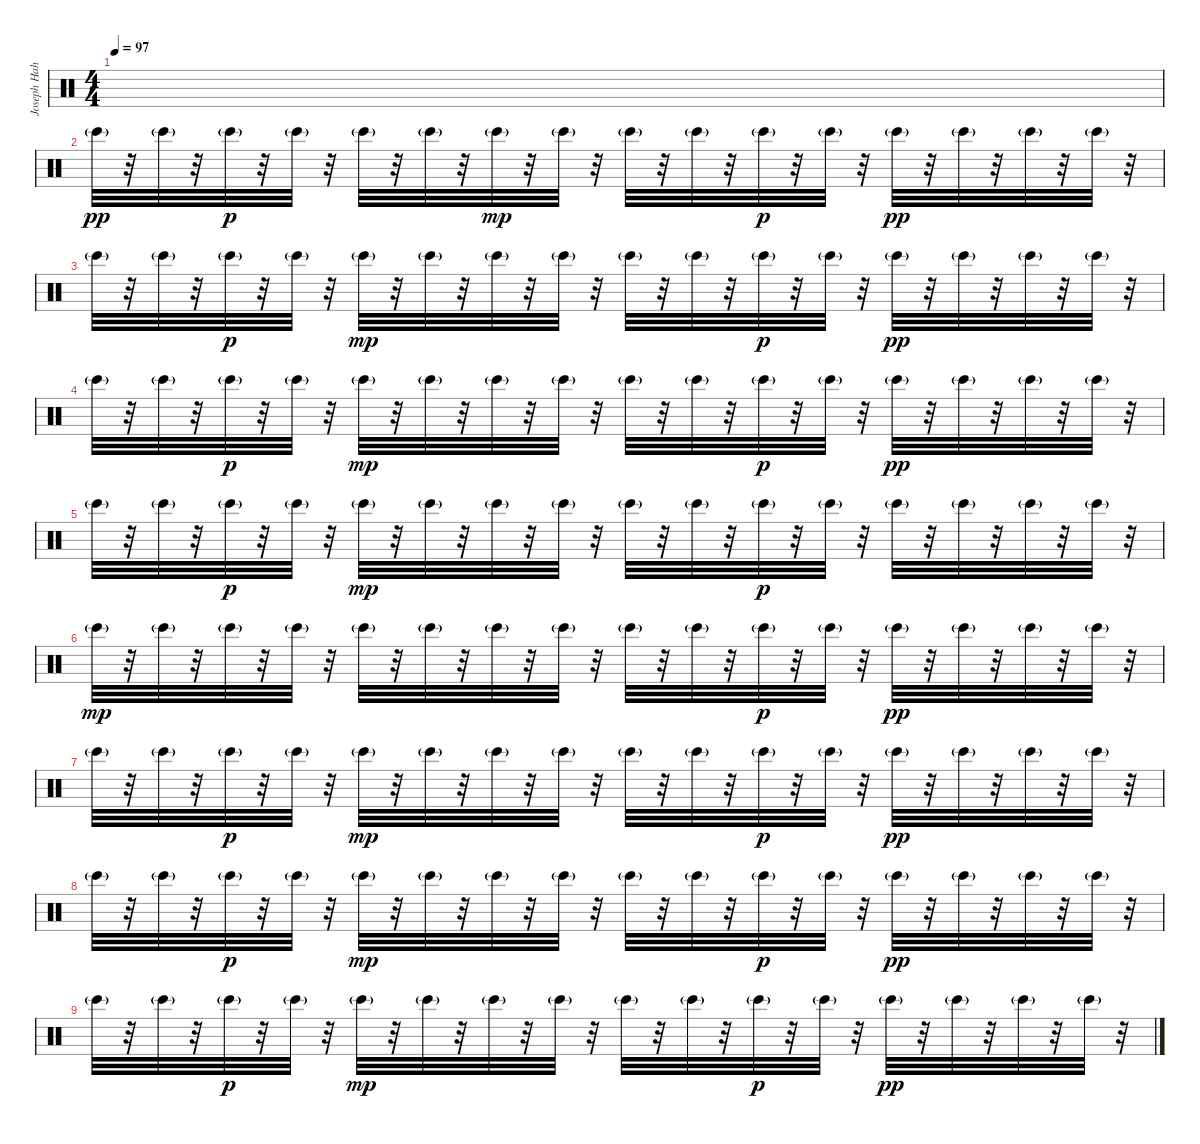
\track ("Joseph Hahn ('Slap' sound)" "Joseph Hah") {instrument percussion}
\staff {score}
\articulation defaults
\ts (4 4)
\tempo 97
\clef neutral
\ks c
|
"Bongo High (hit)"{g}.32{dy pp balance 16} r.32 "Bongo High (hit)"{g}.32 r.32 "Bongo High (hit)"{g}.32{dy p} r.32 "Bongo High (hit)"{g}.32 r.32 "Bongo High (hit)"{g}.32 r.32 "Bongo High (hit)"{g}.32 r.32 "Bongo High (hit)"{g}.32{dy mp} r.32 "Bongo High (hit)"{g}.32 r.32 "Bongo High (hit)"{g}.32 r.32 "Bongo High (hit)"{g}.32 r.32 "Bongo High (hit)"{g}.32{dy p} r.32 "Bongo High (hit)"{g}.32 r.32 "Bongo High (hit)"{g}.32{dy pp} r.32 "Bongo High (hit)"{g}.32 r.32 "Bongo High (hit)"{g}.32 r.32 "Bongo High (hit)"{g}.32 r.32 |
"Bongo High (hit)"{g}.32{balance 16} r.32 "Bongo High (hit)"{g}.32 r.32 "Bongo High (hit)"{g}.32{dy p} r.32 "Bongo High (hit)"{g}.32 r.32 "Bongo High (hit)"{g}.32{dy mp} r.32 "Bongo High (hit)"{g}.32 r.32 "Bongo High (hit)"{g}.32 r.32 "Bongo High (hit)"{g}.32 r.32 "Bongo High (hit)"{g}.32 r.32 "Bongo High (hit)"{g}.32 r.32 "Bongo High (hit)"{g}.32{dy p} r.32 "Bongo High (hit)"{g}.32 r.32 "Bongo High (hit)"{g}.32{dy pp} r.32 "Bongo High (hit)"{g}.32 r.32 "Bongo High (hit)"{g}.32 r.32 "Bongo High (hit)"{g}.32 r.32 |
"Bongo High (hit)"{g}.32{balance 16} r.32 "Bongo High (hit)"{g}.32 r.32 "Bongo High (hit)"{g}.32{dy p} r.32 "Bongo High (hit)"{g}.32 r.32 "Bongo High (hit)"{g}.32{dy mp} r.32 "Bongo High (hit)"{g}.32 r.32 "Bongo High (hit)"{g}.32 r.32 "Bongo High (hit)"{g}.32 r.32 "Bongo High (hit)"{g}.32 r.32 "Bongo High (hit)"{g}.32 r.32 "Bongo High (hit)"{g}.32{dy p} r.32 "Bongo High (hit)"{g}.32 r.32 "Bongo High (hit)"{g}.32{dy pp} r.32 "Bongo High (hit)"{g}.32 r.32 "Bongo High (hit)"{g}.32 r.32 "Bongo High (hit)"{g}.32 r.32 |
"Bongo High (hit)"{g}.32{balance 16} r.32 "Bongo High (hit)"{g}.32 r.32 "Bongo High (hit)"{g}.32{dy p} r.32 "Bongo High (hit)"{g}.32 r.32 "Bongo High (hit)"{g}.32{dy mp} r.32 "Bongo High (hit)"{g}.32 r.32 "Bongo High (hit)"{g}.32 r.32 "Bongo High (hit)"{g}.32 r.32 "Bongo High (hit)"{g}.32 r.32 "Bongo High (hit)"{g}.32 r.32 "Bongo High (hit)"{g}.32{dy p} r.32 "Bongo High (hit)"{g}.32 r.32 "Bongo High (hit)"{g}.32 r.32 "Bongo High (hit)"{g}.32 r.32 "Bongo High (hit)"{g}.32 r.32 "Bongo High (hit)"{g}.32 r.32 |
"Bongo High (hit)"{g}.32{dy mp balance 8} r.32 "Bongo High (hit)"{g}.32 r.32 "Bongo High (hit)"{g}.32 r.32 "Bongo High (hit)"{g}.32 r.32 "Bongo High (hit)"{g}.32 r.32 "Bongo High (hit)"{g}.32 r.32 "Bongo High (hit)"{g}.32 r.32 "Bongo High (hit)"{g}.32 r.32 "Bongo High (hit)"{g}.32 r.32 "Bongo High (hit)"{g}.32 r.32 "Bongo High (hit)"{g}.32{dy p} r.32 "Bongo High (hit)"{g}.32 r.32 "Bongo High (hit)"{g}.32{dy pp} r.32 "Bongo High (hit)"{g}.32 r.32 "Bongo High (hit)"{g}.32 r.32 "Bongo High (hit)"{g}.32 r.32 |
"Bongo High (hit)"{g}.32 r.32 "Bongo High (hit)"{g}.32 r.32 "Bongo High (hit)"{g}.32{dy p} r.32 "Bongo High (hit)"{g}.32 r.32 "Bongo High (hit)"{g}.32{dy mp} r.32 "Bongo High (hit)"{g}.32 r.32 "Bongo High (hit)"{g}.32 r.32 "Bongo High (hit)"{g}.32 r.32 "Bongo High (hit)"{g}.32 r.32 "Bongo High (hit)"{g}.32 r.32 "Bongo High (hit)"{g}.32{dy p} r.32 "Bongo High (hit)"{g}.32 r.32 "Bongo High (hit)"{g}.32{dy pp} r.32 "Bongo High (hit)"{g}.32 r.32 "Bongo High (hit)"{g}.32 r.32 "Bongo High (hit)"{g}.32 r.32 |
"Bongo High (hit)"{g}.32 r.32 "Bongo High (hit)"{g}.32 r.32 "Bongo High (hit)"{g}.32{dy p} r.32 "Bongo High (hit)"{g}.32 r.32 "Bongo High (hit)"{g}.32{dy mp} r.32 "Bongo High (hit)"{g}.32 r.32 "Bongo High (hit)"{g}.32 r.32 "Bongo High (hit)"{g}.32 r.32 "Bongo High (hit)"{g}.32 r.32 "Bongo High (hit)"{g}.32 r.32 "Bongo High (hit)"{g}.32{dy p} r.32 "Bongo High (hit)"{g}.32 r.32 "Bongo High (hit)"{g}.32{dy pp} r.32 "Bongo High (hit)"{g}.32 r.32 "Bongo High (hit)"{g}.32 r.32 "Bongo High (hit)"{g}.32 r.32 |
"Bongo High (hit)"{g}.32 r.32 "Bongo High (hit)"{g}.32 r.32 "Bongo High (hit)"{g}.32{dy p} r.32 "Bongo High (hit)"{g}.32 r.32 "Bongo High (hit)"{g}.32{dy mp} r.32 "Bongo High (hit)"{g}.32 r.32 "Bongo High (hit)"{g}.32 r.32 "Bongo High (hit)"{g}.32 r.32 "Bongo High (hit)"{g}.32 r.32 "Bongo High (hit)"{g}.32 r.32 "Bongo High (hit)"{g}.32{dy p} r.32 "Bongo High (hit)"{g}.32 r.32 "Bongo High (hit)"{g}.32{dy pp} r.32 "Bongo High (hit)"{g}.32 r.32 "Bongo High (hit)"{g}.32 r.32 "Bongo High (hit)"{g}.32 r.32
